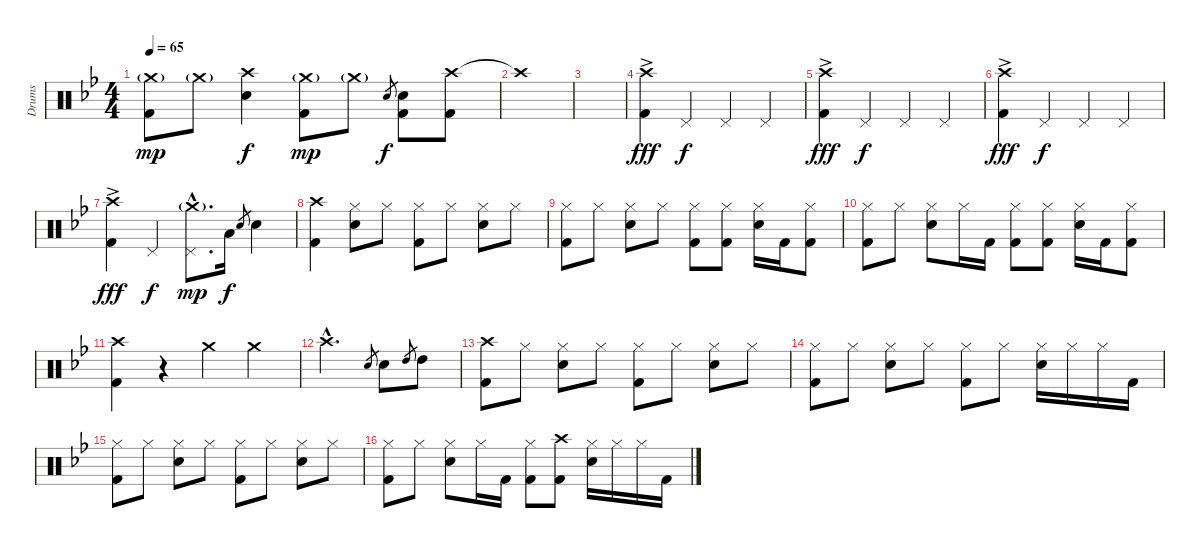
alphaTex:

\track ("Drums" "Drums") {instrument percussion}
\staff {score}
\articulation defaults
\ts (4 4)
\tempo 65
\clef neutral
\ks bb
("Crash medium (hit)"{g} "Kick (hit) 2").8{dy mp} "Crash medium (hit)"{g}.8 ("Crash high (hit)" "Electric Snare (hit)").4{dy f} ("Crash medium (hit)"{g} "Kick (hit) 2").8{dy mp} "Crash medium (hit)"{g}.8 "Electric Snare (hit)".8{gr dy f} ("Electric Snare (hit)" "Kick (hit) 2").8 ("Crash high (hit)" "Kick (hit) 2").8 |
"Crash high (hit)"{t}.1 |
|
("Crash high (hit)"{ac} "Kick (hit) 2").4{dy fff} "Pedal Hi-Hat (hit)".4{dy f} "Pedal Hi-Hat (hit)".4 "Pedal Hi-Hat (hit)".4 |
("Crash high (hit)"{ac} "Kick (hit) 2").4{dy fff} "Pedal Hi-Hat (hit)".4{dy f} "Pedal Hi-Hat (hit)".4 "Pedal Hi-Hat (hit)".4 |
("Crash high (hit)"{ac} "Kick (hit) 2").4{dy fff} "Pedal Hi-Hat (hit)".4{dy f} "Pedal Hi-Hat (hit)".4 "Pedal Hi-Hat (hit)".4 |
("Crash high (hit)"{ac} "Kick (hit) 2").4{dy fff} "Pedal Hi-Hat (hit)".4{dy f} ("Crash medium (hit)"{g hac} "Pedal Hi-Hat (hit)"{hac}).8{d dy mp} "Low Tom (hit)".16{dy f} "Electric Snare (hit)".8{gr} "Electric Snare (hit)".4 |
("Crash high (hit)" "Kick (hit) 2").4 ("Hi-Hat (closed)" "Electric Snare (hit)").8 "Hi-Hat (closed)".8 ("Hi-Hat (closed)" "Kick (hit) 2").8 "Hi-Hat (closed)".8 ("Hi-Hat (closed)" "Electric Snare (hit)").8 "Hi-Hat (closed)".8 |
("Hi-Hat (closed)" "Kick (hit) 2").8 "Hi-Hat (closed)".8 ("Hi-Hat (closed)" "Electric Snare (hit)").8 "Hi-Hat (closed)".8 ("Hi-Hat (closed)" "Kick (hit) 2").8 ("Hi-Hat (closed)" "Kick (hit) 2").8 ("Hi-Hat (closed)" "Electric Snare (hit)").16 "Kick (hit) 2".16 ("Hi-Hat (closed)" "Kick (hit) 2").8 |
("Hi-Hat (closed)" "Kick (hit) 2").8 "Hi-Hat (closed)".8 ("Hi-Hat (closed)" "Electric Snare (hit)").8 "Hi-Hat (closed)".16 "Kick (hit) 2".16 ("Hi-Hat (closed)" "Kick (hit) 2").8 ("Hi-Hat (closed)" "Kick (hit) 2").8 ("Hi-Hat (closed)" "Electric Snare (hit)").16 "Kick (hit) 2".16 ("Hi-Hat (closed)" "Kick (hit) 2").8 |
("Crash high (hit)" "Kick (hit) 2").4 r.4 "Crash medium (hit)".4 "Crash medium (hit)".4 |
"Crash high (hit)"{hac}.2{d} "Electric Snare (hit)".8{gr} "Electric Snare (hit)".8 "High Tom (hit)".8{gr} "High Tom (hit)".8 |
("Crash high (hit)" "Kick (hit) 2").8 "Hi-Hat (closed)".8 ("Hi-Hat (closed)" "Electric Snare (hit)").8 "Hi-Hat (closed)".8 ("Hi-Hat (closed)" "Kick (hit) 2").8 "Hi-Hat (closed)".8 ("Hi-Hat (closed)" "Electric Snare (hit)").8 "Hi-Hat (closed)".8 |
("Hi-Hat (closed)" "Kick (hit) 2").8 "Hi-Hat (closed)".8 ("Hi-Hat (closed)" "Electric Snare (hit)").8 "Hi-Hat (closed)".8 ("Hi-Hat (closed)" "Kick (hit) 2").8 "Hi-Hat (closed)".8 ("Hi-Hat (closed)" "Electric Snare (hit)").16 "Hi-Hat (closed)".16 "Hi-Hat (closed)".16 "Kick (hit) 2".16 |
("Hi-Hat (closed)" "Kick (hit) 2").8 "Hi-Hat (closed)".8 ("Hi-Hat (closed)" "Electric Snare (hit)").8 "Hi-Hat (closed)".8 ("Hi-Hat (closed)" "Kick (hit) 2").8 "Hi-Hat (closed)".8 ("Hi-Hat (closed)" "Electric Snare (hit)").8 "Hi-Hat (closed)".8 |
("Hi-Hat (closed)" "Kick (hit) 2").8 "Hi-Hat (closed)".8 ("Hi-Hat (closed)" "Electric Snare (hit)").8 "Hi-Hat (closed)".16 "Kick (hit) 2".16 ("Hi-Hat (closed)" "Kick (hit) 2").8 ("Crash high (hit)" "Kick (hit) 2").8 ("Hi-Hat (closed)" "Electric Snare (hit)").16 "Hi-Hat (closed)".16 "Hi-Hat (closed)".16 "Kick (hit) 2".16
